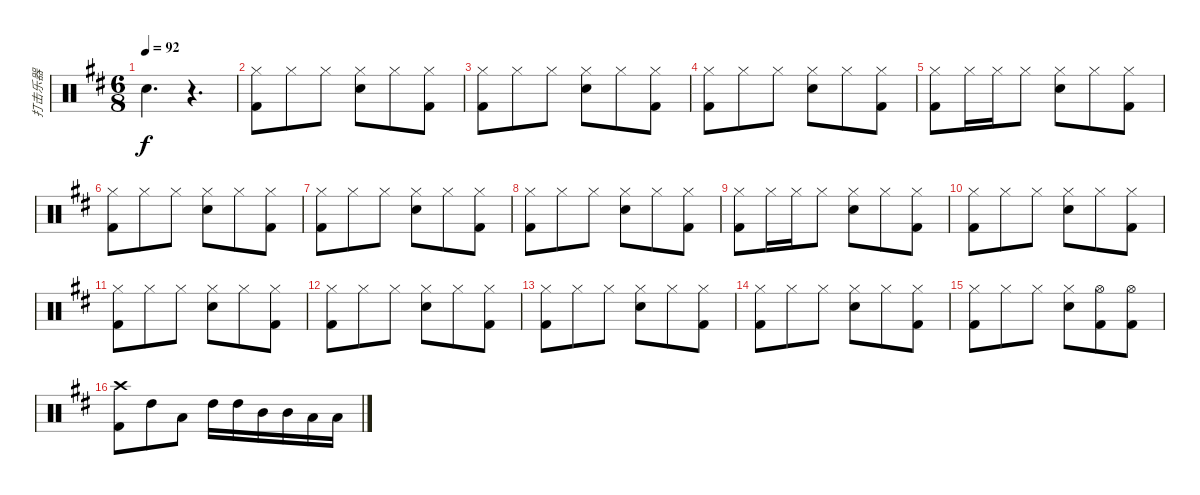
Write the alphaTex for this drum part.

\track ("打击乐器" "打击乐器") {instrument percussion}
\staff {score}
\articulation defaults
\ts (6 8)
\tempo 92
\clef neutral
\ks d "Snare (hit)"{t}.4{d dy f}
r.4{d} |
("Hi-Hat (closed)" "Kick (hit) 2").8 "Hi-Hat (closed)".8 "Hi-Hat (closed)".8 ("Hi-Hat (closed)" "Snare (hit) 2").8 "Hi-Hat (closed)".8 ("Hi-Hat (closed)" "Kick (hit) 2").8 |
("Hi-Hat (closed)" "Kick (hit) 2").8 "Hi-Hat (closed)".8 "Hi-Hat (closed)".8 ("Hi-Hat (closed)" "Snare (hit) 2").8 "Hi-Hat (closed)".8 ("Hi-Hat (closed)" "Kick (hit) 2").8 |
("Hi-Hat (closed)" "Kick (hit) 2").8 "Hi-Hat (closed)".8 "Hi-Hat (closed)".8 ("Hi-Hat (closed)" "Snare (hit) 2").8 "Hi-Hat (closed)".8 ("Hi-Hat (closed)" "Kick (hit) 2").8 |
("Hi-Hat (closed)" "Kick (hit) 2").8 "Hi-Hat (closed)".16 "Hi-Hat (closed)".16 "Hi-Hat (closed)".8 ("Hi-Hat (closed)" "Snare (hit) 2").8 "Hi-Hat (closed)".8 ("Hi-Hat (closed)" "Kick (hit) 2").8 |
("Hi-Hat (closed)" "Kick (hit) 2").8 "Hi-Hat (closed)".8 "Hi-Hat (closed)".8 ("Hi-Hat (closed)" "Snare (hit) 2").8 "Hi-Hat (closed)".8 ("Hi-Hat (closed)" "Kick (hit) 2").8 |
("Hi-Hat (closed)" "Kick (hit) 2").8 "Hi-Hat (closed)".8 "Hi-Hat (closed)".8 ("Hi-Hat (closed)" "Snare (hit) 2").8 "Hi-Hat (closed)".8 ("Hi-Hat (closed)" "Kick (hit) 2").8 |
("Hi-Hat (closed)" "Kick (hit) 2").8 "Hi-Hat (closed)".8 "Hi-Hat (closed)".8 ("Hi-Hat (closed)" "Snare (hit) 2").8 "Hi-Hat (closed)".8 ("Hi-Hat (closed)" "Kick (hit) 2").8 |
("Hi-Hat (closed)" "Kick (hit) 2").8 "Hi-Hat (closed)".16 "Hi-Hat (closed)".16 "Hi-Hat (closed)".8 ("Hi-Hat (closed)" "Snare (hit) 2").8 "Hi-Hat (closed)".8 ("Hi-Hat (closed)" "Kick (hit) 2").8 |
("Hi-Hat (closed)" "Kick (hit) 2").8 "Hi-Hat (closed)".8 "Hi-Hat (closed)".8 ("Hi-Hat (closed)" "Snare (hit) 2").8 "Hi-Hat (closed)".8 ("Hi-Hat (closed)" "Kick (hit) 2").8 |
("Hi-Hat (closed)" "Kick (hit) 2").8 "Hi-Hat (closed)".8 "Hi-Hat (closed)".8 ("Hi-Hat (closed)" "Snare (hit) 2").8 "Hi-Hat (closed)".8 ("Hi-Hat (closed)" "Kick (hit) 2").8 |
("Hi-Hat (closed)" "Kick (hit) 2").8 "Hi-Hat (closed)".8 "Hi-Hat (closed)".8 ("Hi-Hat (closed)" "Snare (hit) 2").8 "Hi-Hat (closed)".8 ("Hi-Hat (closed)" "Kick (hit) 2").8 |
("Hi-Hat (closed)" "Kick (hit) 2").8 "Hi-Hat (closed)".8 "Hi-Hat (closed)".8 ("Hi-Hat (closed)" "Snare (hit) 2").8 "Hi-Hat (closed)".8 ("Hi-Hat (closed)" "Kick (hit) 2").8 |
("Hi-Hat (closed)" "Kick (hit) 2").8 "Hi-Hat (closed)".8 "Hi-Hat (closed)".8 ("Hi-Hat (closed)" "Snare (hit) 2").8 "Hi-Hat (closed)".8 ("Hi-Hat (closed)" "Kick (hit) 2").8 |
("Hi-Hat (closed)" "Kick (hit) 2").8 "Hi-Hat (closed)".8 "Hi-Hat (closed)".8 ("Hi-Hat (closed)" "Snare (hit) 2").8 ("Hi-Hat (open)" "Kick (hit) 2").8 ("Hi-Hat (open)" "Kick (hit) 2").8 |
("Crash high (hit)" "Kick (hit) 2").8 "High Tom (hit)".8 "Low Tom (hit)".8 "High Tom (hit)".16 "High Tom (hit)".16 "Mid Tom (hit)".16 "Mid Tom (hit)".16 "Low Tom (hit)".16 "Low Tom (hit)".16
